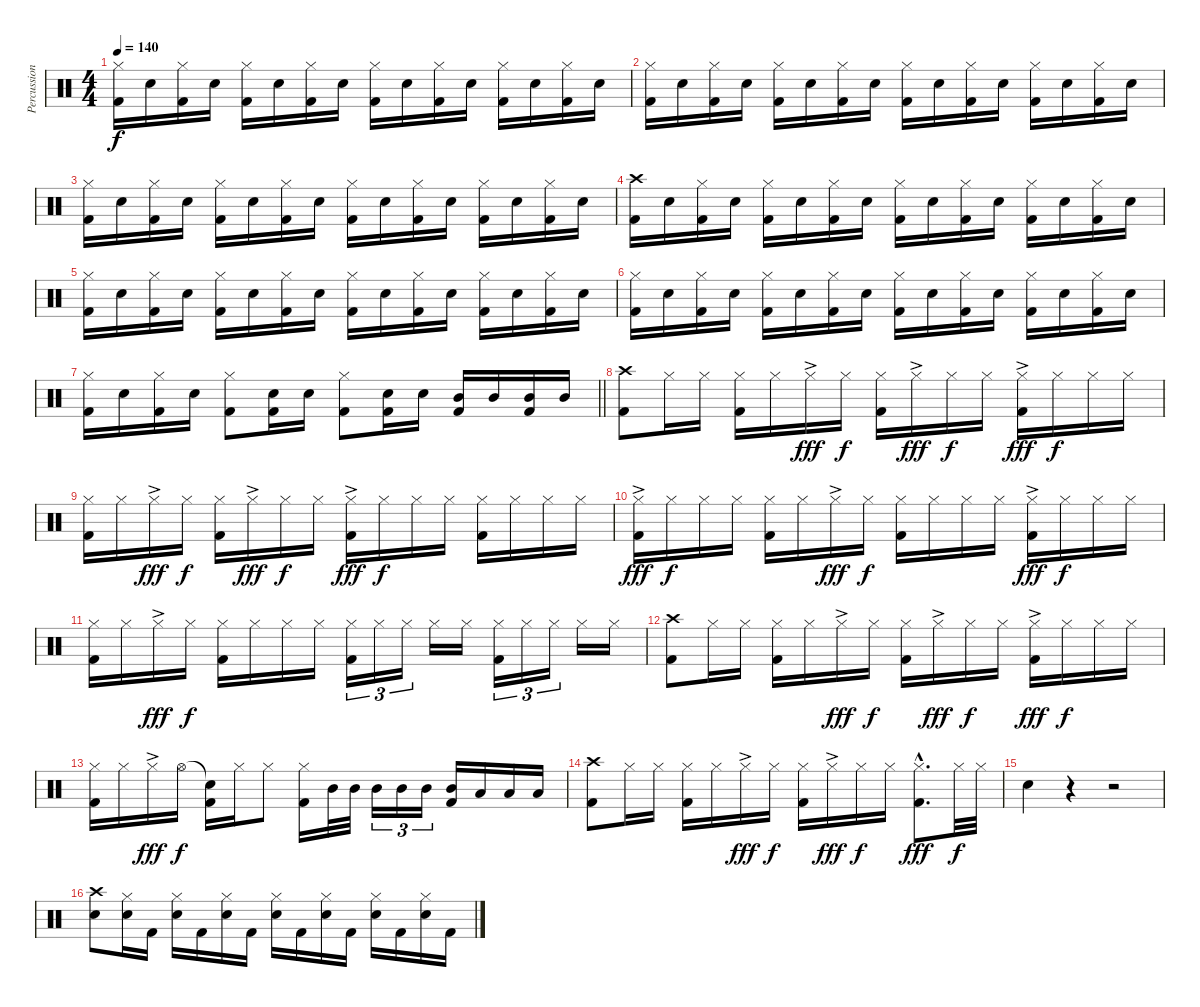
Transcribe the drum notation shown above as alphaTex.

\track ("Percussion" "Percussion") {instrument percussion}
\staff {score}
\articulation defaults
\ts (4 4)
\tempo 140
\clef neutral
\ks c
("Hi-Hat (closed)" "Kick (hit) 2").16{dy f} "Snare (hit) 2".16 ("Hi-Hat (closed)" "Kick (hit) 2").16 "Snare (hit) 2".16 ("Hi-Hat (closed)" "Kick (hit) 2").16 "Snare (hit) 2".16 ("Hi-Hat (closed)" "Kick (hit) 2").16 "Snare (hit) 2".16 ("Hi-Hat (closed)" "Kick (hit) 2").16 "Snare (hit) 2".16 ("Hi-Hat (closed)" "Kick (hit) 2").16 "Snare (hit) 2".16 ("Hi-Hat (closed)" "Kick (hit) 2").16 "Snare (hit) 2".16 ("Hi-Hat (closed)" "Kick (hit) 2").16 "Snare (hit) 2".16 |
("Hi-Hat (closed)" "Kick (hit) 2").16 "Snare (hit) 2".16 ("Hi-Hat (closed)" "Kick (hit) 2").16 "Snare (hit) 2".16 ("Hi-Hat (closed)" "Kick (hit) 2").16 "Snare (hit) 2".16 ("Hi-Hat (closed)" "Kick (hit) 2").16 "Snare (hit) 2".16 ("Hi-Hat (closed)" "Kick (hit) 2").16 "Snare (hit) 2".16 ("Hi-Hat (closed)" "Kick (hit) 2").16 "Snare (hit) 2".16 ("Hi-Hat (closed)" "Kick (hit) 2").16 "Snare (hit) 2".16 ("Hi-Hat (closed)" "Kick (hit) 2").16 "Snare (hit) 2".16 |
("Hi-Hat (closed)" "Kick (hit) 2").16 "Snare (hit) 2".16 ("Hi-Hat (closed)" "Kick (hit) 2").16 "Snare (hit) 2".16 ("Hi-Hat (closed)" "Kick (hit) 2").16 "Snare (hit) 2".16 ("Hi-Hat (closed)" "Kick (hit) 2").16 "Snare (hit) 2".16 ("Hi-Hat (closed)" "Kick (hit) 2").16 "Snare (hit) 2".16 ("Hi-Hat (closed)" "Kick (hit) 2").16 "Snare (hit) 2".16 ("Hi-Hat (closed)" "Kick (hit) 2").16 "Snare (hit) 2".16 ("Hi-Hat (closed)" "Kick (hit) 2").16 "Snare (hit) 2".16 |
("Crash high (hit)" "Kick (hit) 2").16 "Snare (hit) 2".16 ("Hi-Hat (closed)" "Kick (hit) 2").16 "Snare (hit) 2".16 ("Hi-Hat (closed)" "Kick (hit) 2").16 "Snare (hit) 2".16 ("Hi-Hat (closed)" "Kick (hit) 2").16 "Snare (hit) 2".16 ("Hi-Hat (closed)" "Kick (hit) 2").16 "Snare (hit) 2".16 ("Hi-Hat (closed)" "Kick (hit) 2").16 "Snare (hit) 2".16 ("Hi-Hat (closed)" "Kick (hit) 2").16 "Snare (hit) 2".16 ("Hi-Hat (closed)" "Kick (hit) 2").16 "Snare (hit) 2".16 |
("Hi-Hat (closed)" "Kick (hit) 2").16 "Snare (hit) 2".16 ("Hi-Hat (closed)" "Kick (hit) 2").16 "Snare (hit) 2".16 ("Hi-Hat (closed)" "Kick (hit) 2").16 "Snare (hit) 2".16 ("Hi-Hat (closed)" "Kick (hit) 2").16 "Snare (hit) 2".16 ("Hi-Hat (closed)" "Kick (hit) 2").16 "Snare (hit) 2".16 ("Hi-Hat (closed)" "Kick (hit) 2").16 "Snare (hit) 2".16 ("Hi-Hat (closed)" "Kick (hit) 2").16 "Snare (hit) 2".16 ("Hi-Hat (closed)" "Kick (hit) 2").16 "Snare (hit) 2".16 |
("Hi-Hat (closed)" "Kick (hit) 2").16 "Snare (hit) 2".16 ("Hi-Hat (closed)" "Kick (hit) 2").16 "Snare (hit) 2".16 ("Hi-Hat (closed)" "Kick (hit) 2").16 "Snare (hit) 2".16 ("Hi-Hat (closed)" "Kick (hit) 2").16 "Snare (hit) 2".16 ("Hi-Hat (closed)" "Kick (hit) 2").16 "Snare (hit) 2".16 ("Hi-Hat (closed)" "Kick (hit) 2").16 "Snare (hit) 2".16 ("Hi-Hat (closed)" "Kick (hit) 2").16 "Snare (hit) 2".16 ("Hi-Hat (closed)" "Kick (hit) 2").16 "Snare (hit) 2".16 |
\barLineRight lightlight
("Hi-Hat (closed)" "Kick (hit) 2").16 "Snare (hit) 2".16 ("Hi-Hat (closed)" "Kick (hit) 2").16 "Snare (hit) 2".16 ("Hi-Hat (closed)" "Kick (hit) 2").8 ("Snare (hit) 2" "Kick (hit) 2").16 "Snare (hit) 2".16 ("Hi-Hat (closed)" "Kick (hit) 2").8 ("Snare (hit) 2" "Kick (hit) 2").16 "Snare (hit) 2".16 ("Mid Tom (hit)" "Kick (hit) 2").16 "Mid Tom (hit)".16 ("Mid Tom (hit)" "Kick (hit) 2").16 "Mid Tom (hit)".16 |
("Crash high (hit)" "Kick (hit) 2").8 "Hi-Hat (closed)".16 "Hi-Hat (closed)".16 ("Hi-Hat (closed)" "Kick (hit) 2").16 "Hi-Hat (closed)".16 "Hi-Hat (closed)"{ac}.16{dy fff} "Hi-Hat (closed)".16{dy f} ("Hi-Hat (closed)" "Kick (hit) 2").16 "Hi-Hat (closed)"{ac}.16{dy fff} "Hi-Hat (closed)".16{dy f} "Hi-Hat (closed)".16 ("Hi-Hat (closed)"{ac} "Kick (hit) 2").16{dy fff} "Hi-Hat (closed)".16{dy f} "Hi-Hat (closed)".16 "Hi-Hat (closed)".16 |
("Hi-Hat (closed)" "Kick (hit) 2").16 "Hi-Hat (closed)".16 "Hi-Hat (closed)"{ac}.16{dy fff} "Hi-Hat (closed)".16{dy f} ("Hi-Hat (closed)" "Kick (hit) 2").16 "Hi-Hat (closed)"{ac}.16{dy fff} "Hi-Hat (closed)".16{dy f} "Hi-Hat (closed)".16 ("Hi-Hat (closed)"{ac} "Kick (hit) 2").16{dy fff} "Hi-Hat (closed)".16{dy f} "Hi-Hat (closed)".16 "Hi-Hat (closed)".16 ("Hi-Hat (closed)" "Kick (hit) 2").16 "Hi-Hat (closed)".16 "Hi-Hat (closed)".16 "Hi-Hat (closed)".16 |
("Hi-Hat (closed)"{ac} "Kick (hit) 2").16{dy fff} "Hi-Hat (closed)".16{dy f} "Hi-Hat (closed)".16 "Hi-Hat (closed)".16 ("Hi-Hat (closed)" "Kick (hit) 2").16 "Hi-Hat (closed)".16 "Hi-Hat (closed)"{ac}.16{dy fff} "Hi-Hat (closed)".16{dy f} ("Hi-Hat (closed)" "Kick (hit) 2").16 "Hi-Hat (closed)".16 "Hi-Hat (closed)".16 "Hi-Hat (closed)".16 ("Hi-Hat (closed)"{ac} "Kick (hit) 2").16{dy fff} "Hi-Hat (closed)".16{dy f} "Hi-Hat (closed)".16 "Hi-Hat (closed)".16 |
("Hi-Hat (closed)" "Kick (hit) 2").16 "Hi-Hat (closed)".16 "Hi-Hat (closed)"{ac}.16{dy fff} "Hi-Hat (closed)".16{dy f} ("Hi-Hat (closed)" "Kick (hit) 2").16 "Hi-Hat (closed)".16 "Hi-Hat (closed)".16 "Hi-Hat (closed)".16 ("Hi-Hat (closed)" "Kick (hit) 2").16{tu (3 2)} "Hi-Hat (closed)".16{tu (3 2)} "Hi-Hat (closed)".16{tu (3 2)} "Hi-Hat (closed)".16 "Hi-Hat (closed)".16 ("Hi-Hat (closed)" "Kick (hit) 2").16{tu (3 2)} "Hi-Hat (closed)".16{tu (3 2)} "Hi-Hat (closed)".16{tu (3 2)} "Hi-Hat (closed)".16 "Hi-Hat (closed)".16 |
("Crash high (hit)" "Kick (hit) 2").8 "Hi-Hat (closed)".16 "Hi-Hat (closed)".16 ("Hi-Hat (closed)" "Kick (hit) 2").16 "Hi-Hat (closed)".16 "Hi-Hat (closed)"{ac}.16{dy fff} "Hi-Hat (closed)".16{dy f} ("Hi-Hat (closed)" "Kick (hit) 2").16 "Hi-Hat (closed)"{ac}.16{dy fff} "Hi-Hat (closed)".16{dy f} "Hi-Hat (closed)".16 ("Hi-Hat (closed)"{ac} "Kick (hit) 2").16{dy fff} "Hi-Hat (closed)".16{dy f} "Hi-Hat (closed)".16 "Hi-Hat (closed)".16 |
("Hi-Hat (closed)" "Kick (hit) 2").16 "Hi-Hat (closed)".16 "Hi-Hat (closed)"{ac}.16{dy fff} "Hi-Hat (open)".16{dy f} ("Snare (hit)"{t} "Kick (hit) 2").16 "Hi-Hat (closed)".16 "Hi-Hat (closed)".8 ("Hi-Hat (closed)" "Kick (hit) 2").16 "Mid Tom (hit)".32 "Mid Tom (hit)".32 "Mid Tom (hit)".16{tu (3 2)} "Mid Tom (hit)".16{tu (3 2)} "Mid Tom (hit)".16{tu (3 2)} ("Mid Tom (hit)" "Kick (hit) 2").16 "Low Tom (hit)".16 "Low Tom (hit)".16 "Low Tom (hit)".16 |
("Crash high (hit)" "Kick (hit) 2").8 "Hi-Hat (closed)".16 "Hi-Hat (closed)".16 ("Hi-Hat (closed)" "Kick (hit) 2").16 "Hi-Hat (closed)".16 "Hi-Hat (closed)"{ac}.16{dy fff} "Hi-Hat (closed)".16{dy f} ("Hi-Hat (closed)" "Kick (hit) 2").16 "Hi-Hat (closed)"{ac}.16{dy fff} "Hi-Hat (closed)".16{dy f} "Hi-Hat (closed)".16 ("Hi-Hat (closed)"{hac} "Kick (hit) 2"{hac}).8{d dy fff} "Hi-Hat (closed)".32{dy f} "Hi-Hat (closed)".32 |
"Snare (hit) 2".4 r.4 r.2 |
("Crash high (hit)" "Snare (hit) 2").8 ("Hi-Hat (closed)" "Snare (hit) 2").16 "Kick (hit) 2".16 ("Snare (hit) 2" "Hi-Hat (closed)").16 "Kick (hit) 2".16 ("Snare (hit) 2" "Hi-Hat (closed)").16 "Kick (hit) 2".16 ("Snare (hit) 2" "Hi-Hat (closed)").16 "Kick (hit) 2".16 ("Snare (hit) 2" "Hi-Hat (closed)").16 "Kick (hit) 2".16 ("Snare (hit) 2" "Hi-Hat (closed)").16 "Kick (hit) 2".16 ("Snare (hit) 2" "Hi-Hat (closed)").16 "Kick (hit) 2".16
